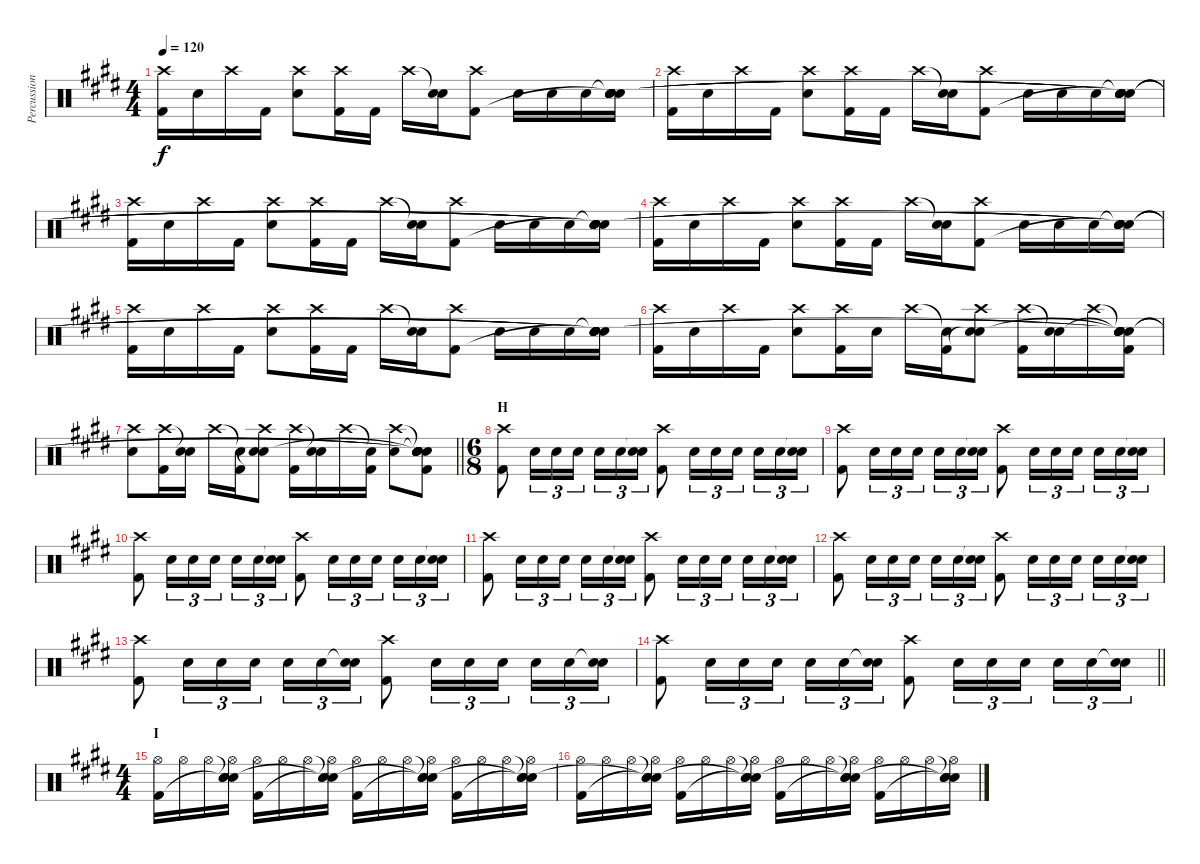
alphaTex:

\track ("Percussion" "Percussion") {instrument percussion}
\staff {score}
\articulation defaults
\ts (4 4)
\tempo 120
\clef neutral
\ks e
("Crash high (hit)" "Kick (hit) 2").16{dy f} "Electric Snare (hit)".16 "Crash high (hit)".16 "Kick (hit) 2".16 ("Crash high (hit)" "Electric Snare (hit)").8 ("Crash high (hit)" "Kick (hit) 2").16 "Kick (hit) 2".16 "Crash high (hit)".16 ("Snare (hit)"{t} "Electric Snare (hit)").16 ("Crash high (hit)" "Kick (hit) 2").8 "Electric Snare (hit)".16 "Electric Snare (hit)".16 "Electric Snare (hit)".16 ("Snare (hit)"{t} "Snare (hit)"{t} "Snare (hit)"{t} "Snare (hit)"{t} "Snare (hit)"{t} "Electric Snare (hit)").16 |
("Crash high (hit)" "Kick (hit) 2").16 "Electric Snare (hit)".16 "Crash high (hit)".16 "Kick (hit) 2".16 ("Crash high (hit)" "Electric Snare (hit)").8 ("Crash high (hit)" "Kick (hit) 2").16 "Kick (hit) 2".16 "Crash high (hit)".16 ("Snare (hit)"{t} "Electric Snare (hit)").16 ("Crash high (hit)" "Kick (hit) 2").8 "Electric Snare (hit)".16 "Electric Snare (hit)".16 "Electric Snare (hit)".16 ("Snare (hit)"{t} "Snare (hit)"{t} "Snare (hit)"{t} "Snare (hit)"{t} "Snare (hit)"{t} "Electric Snare (hit)").16 |
("Crash high (hit)" "Kick (hit) 2").16 "Electric Snare (hit)".16 "Crash high (hit)".16 "Kick (hit) 2".16 ("Crash high (hit)" "Electric Snare (hit)").8 ("Crash high (hit)" "Kick (hit) 2").16 "Kick (hit) 2".16 "Crash high (hit)".16 ("Snare (hit)"{t} "Electric Snare (hit)").16 ("Crash high (hit)" "Kick (hit) 2").8 "Electric Snare (hit)".16 "Electric Snare (hit)".16 "Electric Snare (hit)".16 ("Snare (hit)"{t} "Snare (hit)"{t} "Snare (hit)"{t} "Snare (hit)"{t} "Snare (hit)"{t} "Electric Snare (hit)").16 |
("Crash high (hit)" "Kick (hit) 2").16 "Electric Snare (hit)".16 "Crash high (hit)".16 "Kick (hit) 2".16 ("Crash high (hit)" "Electric Snare (hit)").8 ("Crash high (hit)" "Kick (hit) 2").16 "Kick (hit) 2".16 "Crash high (hit)".16 ("Snare (hit)"{t} "Electric Snare (hit)").16 ("Crash high (hit)" "Kick (hit) 2").8 "Electric Snare (hit)".16 "Electric Snare (hit)".16 "Electric Snare (hit)".16 ("Snare (hit)"{t} "Snare (hit)"{t} "Snare (hit)"{t} "Snare (hit)"{t} "Snare (hit)"{t} "Electric Snare (hit)").16 |
("Crash high (hit)" "Kick (hit) 2").16 "Electric Snare (hit)".16 "Crash high (hit)".16 "Kick (hit) 2".16 ("Crash high (hit)" "Electric Snare (hit)").8 ("Crash high (hit)" "Kick (hit) 2").16 "Kick (hit) 2".16 "Crash high (hit)".16 ("Snare (hit)"{t} "Electric Snare (hit)").16 ("Crash high (hit)" "Kick (hit) 2").8 "Electric Snare (hit)".16 "Electric Snare (hit)".16 "Electric Snare (hit)".16 ("Snare (hit)"{t} "Snare (hit)"{t} "Snare (hit)"{t} "Snare (hit)"{t} "Snare (hit)"{t} "Electric Snare (hit)").16 |
("Crash high (hit)" "Kick (hit) 2").16 "Electric Snare (hit)".16 "Crash high (hit)".16 "Kick (hit) 2".16 ("Crash high (hit)" "Electric Snare (hit)").8 ("Crash high (hit)" "Kick (hit) 2").16 "Electric Snare (hit)".16 "Crash high (hit)".16 ("Snare (hit)"{t} "Kick (hit) 2").16 ("Crash high (hit)" "Snare (hit)"{t} "Electric Snare (hit)").8 ("Crash high (hit)" "Kick (hit) 2").16 ("Snare (hit)"{t} "Electric Snare (hit)").16 "Crash high (hit)".16 ("Snare (hit)"{t} "Snare (hit)"{t} "Snare (hit)"{t} "Snare (hit)"{t} "Snare (hit)"{t} "Kick (hit) 2").16 |
\barLineRight lightlight
("Crash high (hit)" "Electric Snare (hit)").8 ("Crash high (hit)" "Kick (hit) 2").16 ("Snare (hit)"{t} "Electric Snare (hit)").16 "Crash high (hit)".16 ("Snare (hit)"{t} "Kick (hit) 2").16 ("Crash high (hit)" "Snare (hit)"{t} "Electric Snare (hit)").8 ("Crash high (hit)" "Kick (hit) 2").16 ("Snare (hit)"{t} "Electric Snare (hit)").16 "Crash high (hit)".16 ("Snare (hit)"{t} "Kick (hit) 2").16 ("Crash high (hit)" "Electric Snare (hit)").8 ("Snare (hit)"{t} "Snare (hit)"{t} "Snare (hit)"{t} "Snare (hit)"{t} "Snare (hit)"{t} "Kick (hit) 2").8 |
\ts (6 8)
\section ("" "H")
("Crash high (hit)" "Kick (hit) 2").8 "Electric Snare (hit)".16{tu (3 2)} "Electric Snare (hit)".16{tu (3 2)} "Electric Snare (hit)".16{tu (3 2) beam splitsecondary} "Electric Snare (hit)".16{tu (3 2)} "Electric Snare (hit)".16{tu (3 2)} ("Snare (hit)"{t} "Electric Snare (hit)").16{tu (3 2)} ("Crash high (hit)" "Kick (hit) 2").8 "Electric Snare (hit)".16{tu (3 2)} "Electric Snare (hit)".16{tu (3 2)} "Electric Snare (hit)".16{tu (3 2) beam splitsecondary} "Electric Snare (hit)".16{tu (3 2)} "Electric Snare (hit)".16{tu (3 2)} ("Snare (hit)"{t} "Electric Snare (hit)").16{tu (3 2)} |
("Crash high (hit)" "Kick (hit) 2").8 "Electric Snare (hit)".16{tu (3 2)} "Electric Snare (hit)".16{tu (3 2)} "Electric Snare (hit)".16{tu (3 2) beam splitsecondary} "Electric Snare (hit)".16{tu (3 2)} "Electric Snare (hit)".16{tu (3 2)} ("Snare (hit)"{t} "Electric Snare (hit)").16{tu (3 2)} ("Crash high (hit)" "Kick (hit) 2").8 "Electric Snare (hit)".16{tu (3 2)} "Electric Snare (hit)".16{tu (3 2)} "Electric Snare (hit)".16{tu (3 2) beam splitsecondary} "Electric Snare (hit)".16{tu (3 2)} "Electric Snare (hit)".16{tu (3 2)} ("Snare (hit)"{t} "Electric Snare (hit)").16{tu (3 2)} |
("Crash high (hit)" "Kick (hit) 2").8 "Electric Snare (hit)".16{tu (3 2)} "Electric Snare (hit)".16{tu (3 2)} "Electric Snare (hit)".16{tu (3 2) beam splitsecondary} "Electric Snare (hit)".16{tu (3 2)} "Electric Snare (hit)".16{tu (3 2)} ("Snare (hit)"{t} "Electric Snare (hit)").16{tu (3 2)} ("Crash high (hit)" "Kick (hit) 2").8 "Electric Snare (hit)".16{tu (3 2)} "Electric Snare (hit)".16{tu (3 2)} "Electric Snare (hit)".16{tu (3 2) beam splitsecondary} "Electric Snare (hit)".16{tu (3 2)} "Electric Snare (hit)".16{tu (3 2)} ("Snare (hit)"{t} "Electric Snare (hit)").16{tu (3 2)} |
("Crash high (hit)" "Kick (hit) 2").8 "Electric Snare (hit)".16{tu (3 2)} "Electric Snare (hit)".16{tu (3 2)} "Electric Snare (hit)".16{tu (3 2) beam splitsecondary} "Electric Snare (hit)".16{tu (3 2)} "Electric Snare (hit)".16{tu (3 2)} ("Snare (hit)"{t} "Electric Snare (hit)").16{tu (3 2)} ("Crash high (hit)" "Kick (hit) 2").8 "Electric Snare (hit)".16{tu (3 2)} "Electric Snare (hit)".16{tu (3 2)} "Electric Snare (hit)".16{tu (3 2) beam splitsecondary} "Electric Snare (hit)".16{tu (3 2)} "Electric Snare (hit)".16{tu (3 2)} ("Snare (hit)"{t} "Electric Snare (hit)").16{tu (3 2)} |
("Crash high (hit)" "Kick (hit) 2").8 "Electric Snare (hit)".16{tu (3 2)} "Electric Snare (hit)".16{tu (3 2)} "Electric Snare (hit)".16{tu (3 2) beam splitsecondary} "Electric Snare (hit)".16{tu (3 2)} "Electric Snare (hit)".16{tu (3 2)} ("Snare (hit)"{t} "Electric Snare (hit)").16{tu (3 2)} ("Crash high (hit)" "Kick (hit) 2").8 "Electric Snare (hit)".16{tu (3 2)} "Electric Snare (hit)".16{tu (3 2)} "Electric Snare (hit)".16{tu (3 2) beam splitsecondary} "Electric Snare (hit)".16{tu (3 2)} "Electric Snare (hit)".16{tu (3 2)} ("Snare (hit)"{t} "Electric Snare (hit)").16{tu (3 2)} |
("Crash high (hit)" "Kick (hit) 2").8 "Electric Snare (hit)".16{tu (3 2)} "Electric Snare (hit)".16{tu (3 2)} "Electric Snare (hit)".16{tu (3 2) beam splitsecondary} "Electric Snare (hit)".16{tu (3 2)} "Electric Snare (hit)".16{tu (3 2)} ("Snare (hit)"{t} "Electric Snare (hit)").16{tu (3 2)} ("Crash high (hit)" "Kick (hit) 2").8 "Electric Snare (hit)".16{tu (3 2)} "Electric Snare (hit)".16{tu (3 2)} "Electric Snare (hit)".16{tu (3 2) beam splitsecondary} "Electric Snare (hit)".16{tu (3 2)} "Electric Snare (hit)".16{tu (3 2)} ("Snare (hit)"{t} "Electric Snare (hit)").16{tu (3 2)} |
\barLineRight lightlight
("Crash high (hit)" "Kick (hit) 2").8 "Electric Snare (hit)".16{tu (3 2)} "Electric Snare (hit)".16{tu (3 2)} "Electric Snare (hit)".16{tu (3 2) beam splitsecondary} "Electric Snare (hit)".16{tu (3 2)} "Electric Snare (hit)".16{tu (3 2)} ("Snare (hit)"{t} "Electric Snare (hit)").16{tu (3 2)} ("Crash high (hit)" "Kick (hit) 2").8 "Electric Snare (hit)".16{tu (3 2)} "Electric Snare (hit)".16{tu (3 2)} "Electric Snare (hit)".16{tu (3 2) beam splitsecondary} "Electric Snare (hit)".16{tu (3 2)} "Electric Snare (hit)".16{tu (3 2)} ("Snare (hit)"{t} "Electric Snare (hit)").16{tu (3 2)} |
\ts (4 4)
\section ("" "I")
("Hi-Hat (open)" "Kick (hit) 2").16 "Hi-Hat (open)".16 "Hi-Hat (open)".16 ("Snare (hit)"{t} "Snare (hit)"{t} "Snare (hit)" "Hi-Hat (open)").16 ("Hi-Hat (open)" "Kick (hit) 2").16 "Hi-Hat (open)".16 "Hi-Hat (open)".16 ("Snare (hit)"{t} "Snare (hit)"{t} "Snare (hit)"{t} "Hi-Hat (open)").16 ("Hi-Hat (open)" "Kick (hit) 2").16 "Hi-Hat (open)".16 "Hi-Hat (open)".16 ("Snare (hit)"{t} "Snare (hit)"{t} "Snare (hit)"{t} "Hi-Hat (open)").16 ("Hi-Hat (open)" "Kick (hit) 2").16 "Hi-Hat (open)".16 "Hi-Hat (open)".16 ("Snare (hit)"{t} "Snare (hit)"{t} "Snare (hit)"{t} "Hi-Hat (open)").16 |
("Hi-Hat (open)" "Kick (hit) 2").16 "Hi-Hat (open)".16 "Hi-Hat (open)".16 ("Snare (hit)"{t} "Snare (hit)"{t} "Snare (hit)"{t} "Hi-Hat (open)").16 ("Hi-Hat (open)" "Kick (hit) 2").16 "Hi-Hat (open)".16 "Hi-Hat (open)".16 ("Snare (hit)"{t} "Snare (hit)"{t} "Snare (hit)"{t} "Hi-Hat (open)").16 ("Hi-Hat (open)" "Kick (hit) 2").16 "Hi-Hat (open)".16 "Hi-Hat (open)".16 ("Snare (hit)"{t} "Snare (hit)"{t} "Snare (hit)"{t} "Hi-Hat (open)").16 ("Hi-Hat (open)" "Kick (hit) 2").16 "Hi-Hat (open)".16 "Hi-Hat (open)".16 ("Snare (hit)"{t} "Snare (hit)"{t} "Snare (hit)"{t} "Hi-Hat (open)").16
